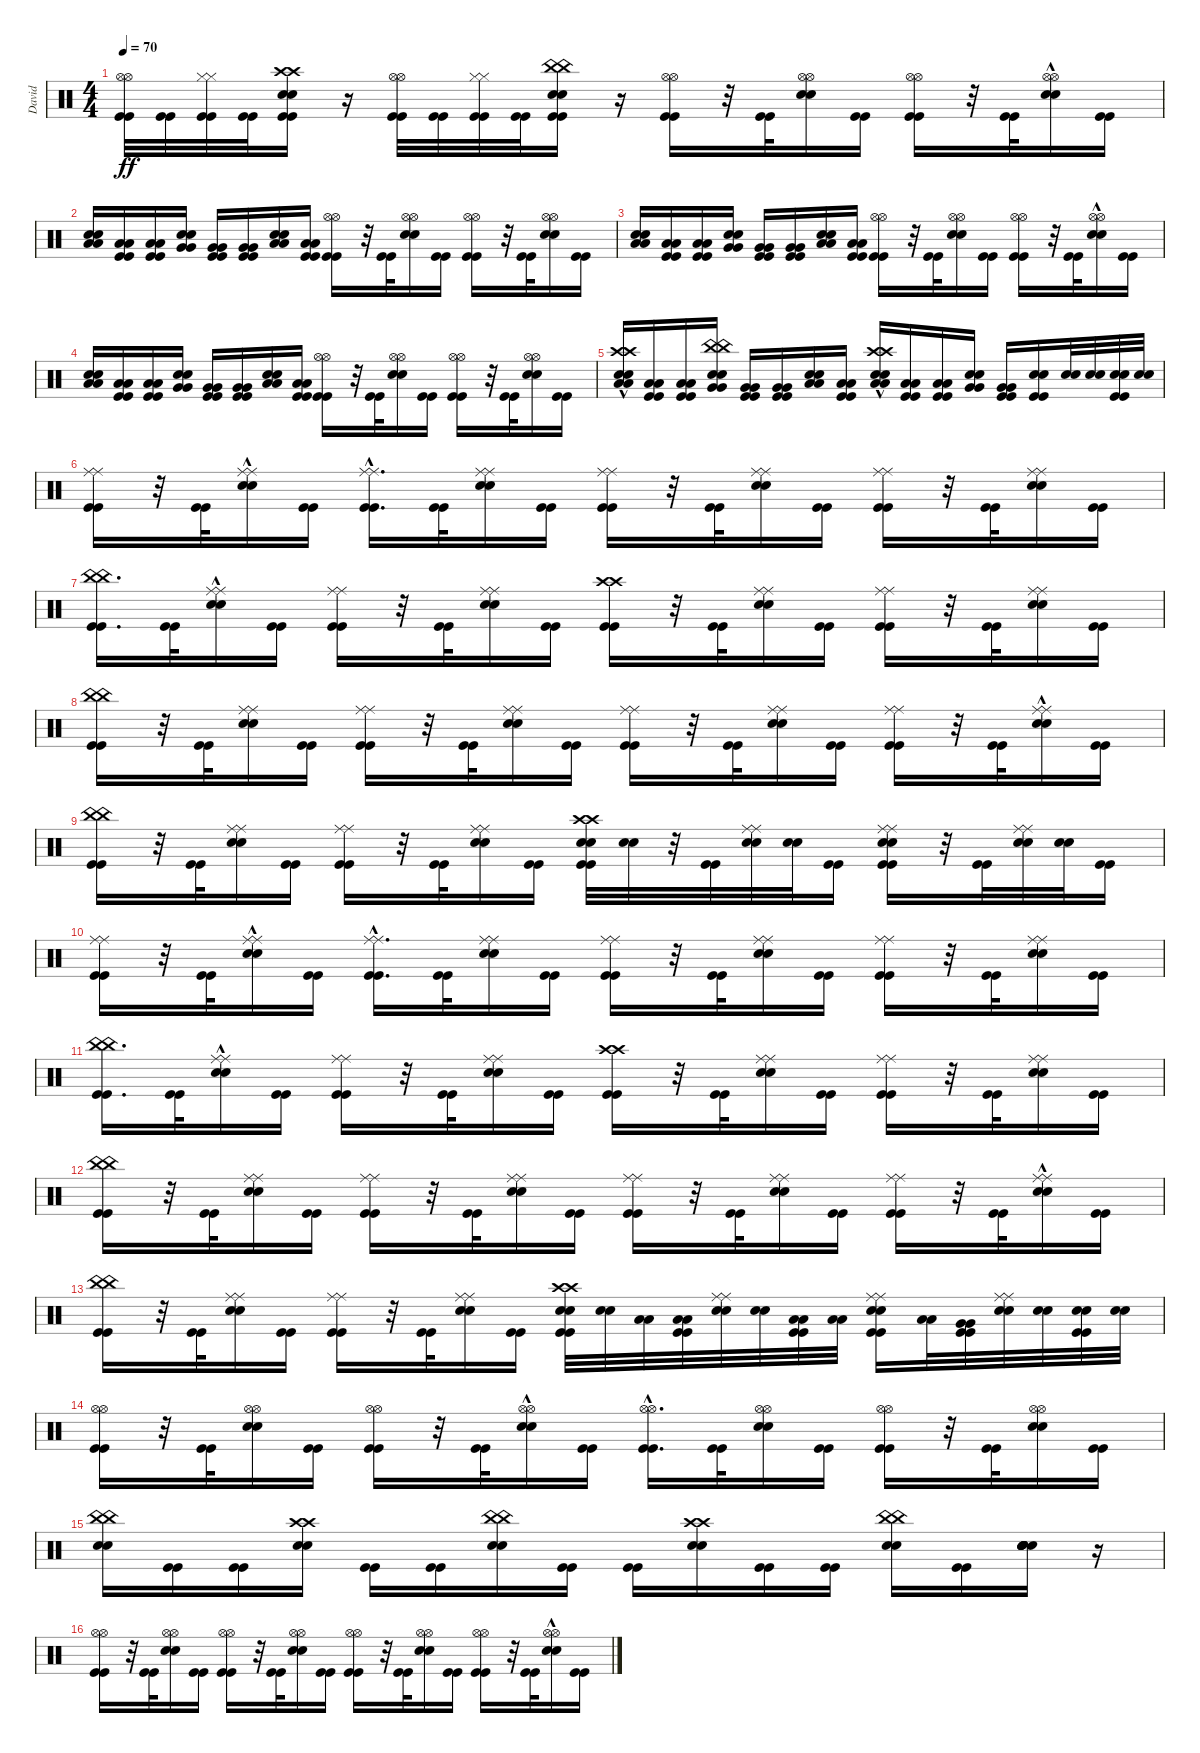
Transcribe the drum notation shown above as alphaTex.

\track ("David" "David") {instrument percussion}
\staff {score}
\articulation defaults
\ts (4 4)
\tempo 70
\clef neutral
\ks c
("Kick (hit)" "Kick (hit)" "Hi-Hat (open)" "Hi-Hat (open)").32{dy ff} ("Kick (hit)" "Kick (hit)").32 ("Hi-Hat (closed)" "Hi-Hat (closed)" "Kick (hit)" "Kick (hit)").32 ("Kick (hit)" "Kick (hit)").32 ("Snare (hit) 2" "Snare (hit) 2" "Crash high (hit)" "Crash high (hit)" "Kick (hit)" "Kick (hit)").16 r.16 ("Kick (hit)" "Kick (hit)" "Hi-Hat (open)" "Hi-Hat (open)").32 ("Kick (hit)" "Kick (hit)").32 ("Kick (hit)" "Kick (hit)" "Hi-Hat (closed)" "Hi-Hat (closed)").32 ("Kick (hit)" "Kick (hit)").32 ("Snare (hit) 2" "Snare (hit) 2" "China (hit)" "China (hit)" "Kick (hit)" "Kick (hit)").16 r.16 ("Kick (hit)" "Kick (hit)" "Hi-Hat (open)" "Hi-Hat (open)").16 r.32 ("Kick (hit)" "Kick (hit)").32 ("Snare (hit) 2" "Snare (hit) 2" "Hi-Hat (open)" "Hi-Hat (open)").16 ("Kick (hit)" "Kick (hit)").16 ("Kick (hit)" "Kick (hit)" "Hi-Hat (open)" "Hi-Hat (open)").16 r.32 ("Kick (hit)" "Kick (hit)").32 ("Snare (hit) 2" "Snare (hit) 2" "Hi-Hat (open)"{hac} "Hi-Hat (open)"{hac}).16 ("Kick (hit)" "Kick (hit)").16 |
("Low Tom (hit)" "Low Tom (hit)" "Snare (hit) 2" "Snare (hit) 2").16 ("Low Tom (hit)" "Low Tom (hit)" "Kick (hit)" "Kick (hit)").16 ("Low Tom (hit)" "Low Tom (hit)" "Kick (hit)" "Kick (hit)").16 ("Very Low Tom (hit)" "Very Low Tom (hit)" "Snare (hit) 2" "Snare (hit) 2").16 ("Very Low Tom (hit)" "Very Low Tom (hit)" "Kick (hit)" "Kick (hit)").16 ("Very Low Tom (hit)" "Very Low Tom (hit)" "Kick (hit)" "Kick (hit)").16 ("Low Floor Tom (hit)" "Low Floor Tom (hit)" "Snare (hit) 2" "Snare (hit) 2").16 ("Low Floor Tom (hit)" "Low Floor Tom (hit)" "Kick (hit)" "Kick (hit)").16 ("Kick (hit)" "Kick (hit)" "Hi-Hat (open)" "Hi-Hat (open)").16 r.32 ("Kick (hit)" "Kick (hit)").32 ("Snare (hit) 2" "Snare (hit) 2" "Hi-Hat (open)" "Hi-Hat (open)").16 ("Kick (hit)" "Kick (hit)").16 ("Kick (hit)" "Kick (hit)" "Hi-Hat (open)" "Hi-Hat (open)").16 r.32 ("Kick (hit)" "Kick (hit)").32 ("Snare (hit) 2" "Snare (hit) 2" "Hi-Hat (open)" "Hi-Hat (open)").16 ("Kick (hit)" "Kick (hit)").16 |
("Low Tom (hit)" "Low Tom (hit)" "Snare (hit) 2" "Snare (hit) 2").16 ("Low Tom (hit)" "Low Tom (hit)" "Kick (hit)" "Kick (hit)").16 ("Low Tom (hit)" "Low Tom (hit)" "Kick (hit)" "Kick (hit)").16 ("Very Low Tom (hit)" "Very Low Tom (hit)" "Snare (hit) 2" "Snare (hit) 2").16 ("Very Low Tom (hit)" "Very Low Tom (hit)" "Kick (hit)" "Kick (hit)").16 ("Very Low Tom (hit)" "Very Low Tom (hit)" "Kick (hit)" "Kick (hit)").16 ("Low Floor Tom (hit)" "Low Floor Tom (hit)" "Snare (hit) 2" "Snare (hit) 2").16 ("Low Floor Tom (hit)" "Low Floor Tom (hit)" "Kick (hit)" "Kick (hit)").16 ("Hi-Hat (open)" "Hi-Hat (open)" "Kick (hit)" "Kick (hit)").16 r.32 ("Kick (hit)" "Kick (hit)").32 ("Hi-Hat (open)" "Hi-Hat (open)" "Snare (hit) 2" "Snare (hit) 2").16 ("Kick (hit)" "Kick (hit)").16 ("Hi-Hat (open)" "Hi-Hat (open)" "Kick (hit)" "Kick (hit)").16 r.32 ("Kick (hit)" "Kick (hit)").32 ("Hi-Hat (open)"{hac} "Hi-Hat (open)"{hac} "Snare (hit) 2" "Snare (hit) 2").16 ("Kick (hit)" "Kick (hit)").16 |
("Low Tom (hit)" "Low Tom (hit)" "Snare (hit) 2" "Snare (hit) 2").16 ("Low Tom (hit)" "Low Tom (hit)" "Kick (hit)" "Kick (hit)").16 ("Low Tom (hit)" "Low Tom (hit)" "Kick (hit)" "Kick (hit)").16 ("Very Low Tom (hit)" "Very Low Tom (hit)" "Snare (hit) 2" "Snare (hit) 2").16 ("Very Low Tom (hit)" "Very Low Tom (hit)" "Kick (hit)" "Kick (hit)").16 ("Very Low Tom (hit)" "Very Low Tom (hit)" "Kick (hit)" "Kick (hit)").16 ("Low Floor Tom (hit)" "Low Floor Tom (hit)" "Snare (hit) 2" "Snare (hit) 2").16 ("Low Floor Tom (hit)" "Low Floor Tom (hit)" "Kick (hit)" "Kick (hit)").16 ("Hi-Hat (open)" "Hi-Hat (open)" "Kick (hit)" "Kick (hit)").16 r.32 ("Kick (hit)" "Kick (hit)").32 ("Hi-Hat (open)" "Hi-Hat (open)" "Snare (hit) 2" "Snare (hit) 2").16 ("Kick (hit)" "Kick (hit)").16 ("Hi-Hat (open)" "Hi-Hat (open)" "Kick (hit)" "Kick (hit)").16 r.32 ("Kick (hit)" "Kick (hit)").32 ("Hi-Hat (open)" "Hi-Hat (open)" "Snare (hit) 2" "Snare (hit) 2").16 ("Kick (hit)" "Kick (hit)").16 |
("Crash high (hit)"{hac} "Crash high (hit)"{hac} "Low Tom (hit)" "Low Tom (hit)" "Snare (hit) 2" "Snare (hit) 2").16 ("Low Tom (hit)" "Low Tom (hit)" "Kick (hit)" "Kick (hit)").16 ("Low Tom (hit)" "Low Tom (hit)" "Kick (hit)" "Kick (hit)").16 ("China (hit)" "China (hit)" "Very Low Tom (hit)" "Very Low Tom (hit)" "Snare (hit) 2" "Snare (hit) 2").16 ("Very Low Tom (hit)" "Very Low Tom (hit)" "Kick (hit)" "Kick (hit)").16 ("Very Low Tom (hit)" "Very Low Tom (hit)" "Kick (hit)" "Kick (hit)").16 ("Low Floor Tom (hit)" "Low Floor Tom (hit)" "Snare (hit) 2" "Snare (hit) 2").16 ("Low Floor Tom (hit)" "Low Floor Tom (hit)" "Kick (hit)" "Kick (hit)").16 ("Low Tom (hit)" "Low Tom (hit)" "Snare (hit) 2" "Snare (hit) 2" "Crash high (hit)"{hac} "Crash high (hit)"{hac}).16 ("Low Tom (hit)" "Low Tom (hit)" "Kick (hit)" "Kick (hit)").16 ("Low Tom (hit)" "Low Tom (hit)" "Kick (hit)" "Kick (hit)").16 ("Very Low Tom (hit)" "Very Low Tom (hit)" "Snare (hit) 2" "Snare (hit) 2").16 ("Very Low Tom (hit)" "Very Low Tom (hit)" "Kick (hit)" "Kick (hit)").16 ("Kick (hit)" "Kick (hit)" "Snare (hit) 2" "Snare (hit) 2").16 ("Snare (hit) 2" "Snare (hit) 2").32 ("Snare (hit) 2" "Snare (hit) 2").32 ("Kick (hit)" "Kick (hit)" "Snare (hit) 2" "Snare (hit) 2").32 ("Snare (hit) 2" "Snare (hit) 2").32 |
("Ride (middle)" "Ride (middle)" "Kick (hit)" "Kick (hit)").16 r.32 ("Kick (hit)" "Kick (hit)").32 ("Snare (hit) 2"{hac} "Snare (hit) 2"{hac} "Ride (middle)" "Ride (middle)").16 ("Kick (hit)" "Kick (hit)").16 ("Ride (middle)"{hac} "Ride (middle)"{hac} "Kick (hit)" "Kick (hit)").16{d} ("Kick (hit)" "Kick (hit)").32 ("Snare (hit) 2" "Snare (hit) 2" "Ride (middle)" "Ride (middle)").16 ("Kick (hit)" "Kick (hit)").16 ("Kick (hit)" "Kick (hit)" "Ride (middle)" "Ride (middle)").16 r.32 ("Kick (hit)" "Kick (hit)").32 ("Snare (hit) 2" "Snare (hit) 2" "Ride (middle)" "Ride (middle)").16 ("Kick (hit)" "Kick (hit)").16 ("Kick (hit)" "Kick (hit)" "Ride (middle)" "Ride (middle)").16 r.32 ("Kick (hit)" "Kick (hit)").32 ("Snare (hit) 2" "Snare (hit) 2" "Ride (middle)" "Ride (middle)").16 ("Kick (hit)" "Kick (hit)").16 |
("Kick (hit)" "Kick (hit)" "China (hit)" "China (hit)").16{d} ("Kick (hit)" "Kick (hit)").32 ("Snare (hit) 2"{hac} "Snare (hit) 2"{hac} "Ride (middle)" "Ride (middle)").16 ("Kick (hit)" "Kick (hit)").16 ("Kick (hit)" "Kick (hit)" "Ride (middle)" "Ride (middle)").16 r.32 ("Kick (hit)" "Kick (hit)").32 ("Snare (hit) 2" "Snare (hit) 2" "Ride (middle)" "Ride (middle)").16 ("Kick (hit)" "Kick (hit)").16 ("Kick (hit)" "Kick (hit)" "Crash high (hit)" "Crash high (hit)").16 r.32 ("Kick (hit)" "Kick (hit)").32 ("Snare (hit) 2" "Snare (hit) 2" "Ride (middle)" "Ride (middle)").16 ("Kick (hit)" "Kick (hit)").16 ("Kick (hit)" "Kick (hit)" "Ride (middle)" "Ride (middle)").16 r.32 ("Kick (hit)" "Kick (hit)").32 ("Snare (hit) 2" "Snare (hit) 2" "Ride (middle)" "Ride (middle)").16 ("Kick (hit)" "Kick (hit)").16 |
("Kick (hit)" "Kick (hit)" "China (hit)" "China (hit)").16 r.32 ("Kick (hit)" "Kick (hit)").32 ("Snare (hit) 2" "Snare (hit) 2" "Ride (middle)" "Ride (middle)").16 ("Kick (hit)" "Kick (hit)").16 ("Kick (hit)" "Kick (hit)" "Ride (middle)" "Ride (middle)").16 r.32 ("Kick (hit)" "Kick (hit)").32 ("Ride (middle)" "Ride (middle)" "Snare (hit) 2" "Snare (hit) 2").16 ("Kick (hit)" "Kick (hit)").16 ("Ride (middle)" "Ride (middle)" "Kick (hit)" "Kick (hit)").16 r.32 ("Kick (hit)" "Kick (hit)").32 ("Ride (middle)" "Ride (middle)" "Snare (hit) 2" "Snare (hit) 2").16 ("Kick (hit)" "Kick (hit)").16 ("Kick (hit)" "Kick (hit)" "Ride (middle)" "Ride (middle)").16 r.32 ("Kick (hit)" "Kick (hit)").32 ("Snare (hit) 2"{hac} "Snare (hit) 2"{hac} "Ride (middle)" "Ride (middle)").16 ("Kick (hit)" "Kick (hit)").16 |
("Kick (hit)" "Kick (hit)" "China (hit)" "China (hit)").16 r.32 ("Kick (hit)" "Kick (hit)").32 ("Snare (hit) 2" "Snare (hit) 2" "Ride (middle)" "Ride (middle)").16 ("Kick (hit)" "Kick (hit)").16 ("Ride (middle)" "Ride (middle)" "Kick (hit)" "Kick (hit)").16 r.32 ("Kick (hit)" "Kick (hit)").32 ("Ride (middle)" "Ride (middle)" "Snare (hit) 2" "Snare (hit) 2").16 ("Kick (hit)" "Kick (hit)").16 ("Crash high (hit)" "Crash high (hit)" "Kick (hit)" "Kick (hit)" "Snare (hit) 2" "Snare (hit) 2").32 ("Snare (hit) 2" "Snare (hit) 2").32 r.32 ("Kick (hit)" "Kick (hit)").32 ("Snare (hit) 2" "Snare (hit) 2" "Ride (middle)" "Ride (middle)").32 ("Snare (hit) 2" "Snare (hit) 2").32 ("Kick (hit)" "Kick (hit)").16 ("Snare (hit) 2" "Snare (hit) 2" "Ride (middle)" "Ride (middle)" "Kick (hit)" "Kick (hit)").16 r.32 ("Kick (hit)" "Kick (hit)").32 ("Snare (hit) 2" "Snare (hit) 2" "Ride (middle)" "Ride (middle)").32 ("Snare (hit) 2" "Snare (hit) 2").32 ("Kick (hit)" "Kick (hit)").16 |
("Kick (hit)" "Kick (hit)" "Ride (middle)" "Ride (middle)").16 r.32 ("Kick (hit)" "Kick (hit)").32 ("Ride (middle)" "Ride (middle)" "Snare (hit) 2"{hac} "Snare (hit) 2"{hac}).16 ("Kick (hit)" "Kick (hit)").16 ("Kick (hit)" "Kick (hit)" "Ride (middle)"{hac} "Ride (middle)"{hac}).16{d} ("Kick (hit)" "Kick (hit)").32 ("Ride (middle)" "Ride (middle)" "Snare (hit) 2" "Snare (hit) 2").16 ("Kick (hit)" "Kick (hit)").16 ("Ride (middle)" "Ride (middle)" "Kick (hit)" "Kick (hit)").16 r.32 ("Kick (hit)" "Kick (hit)").32 ("Ride (middle)" "Ride (middle)" "Snare (hit) 2" "Snare (hit) 2").16 ("Kick (hit)" "Kick (hit)").16 ("Ride (middle)" "Ride (middle)" "Kick (hit)" "Kick (hit)").16 r.32 ("Kick (hit)" "Kick (hit)").32 ("Ride (middle)" "Ride (middle)" "Snare (hit) 2" "Snare (hit) 2").16 ("Kick (hit)" "Kick (hit)").16 |
("China (hit)" "China (hit)" "Kick (hit)" "Kick (hit)").16{d} ("Kick (hit)" "Kick (hit)").32 ("Ride (middle)" "Ride (middle)" "Snare (hit) 2"{hac} "Snare (hit) 2"{hac}).16 ("Kick (hit)" "Kick (hit)").16 ("Ride (middle)" "Ride (middle)" "Kick (hit)" "Kick (hit)").16 r.32 ("Kick (hit)" "Kick (hit)").32 ("Ride (middle)" "Ride (middle)" "Snare (hit) 2" "Snare (hit) 2").16 ("Kick (hit)" "Kick (hit)").16 ("Crash high (hit)" "Crash high (hit)" "Kick (hit)" "Kick (hit)").16 r.32 ("Kick (hit)" "Kick (hit)").32 ("Ride (middle)" "Ride (middle)" "Snare (hit) 2" "Snare (hit) 2").16 ("Kick (hit)" "Kick (hit)").16 ("Ride (middle)" "Ride (middle)" "Kick (hit)" "Kick (hit)").16 r.32 ("Kick (hit)" "Kick (hit)").32 ("Ride (middle)" "Ride (middle)" "Snare (hit) 2" "Snare (hit) 2").16 ("Kick (hit)" "Kick (hit)").16 |
("China (hit)" "China (hit)" "Kick (hit)" "Kick (hit)").16 r.32 ("Kick (hit)" "Kick (hit)").32 ("Ride (middle)" "Ride (middle)" "Snare (hit) 2" "Snare (hit) 2").16 ("Kick (hit)" "Kick (hit)").16 ("Ride (middle)" "Ride (middle)" "Kick (hit)" "Kick (hit)").16 r.32 ("Kick (hit)" "Kick (hit)").32 ("Snare (hit) 2" "Snare (hit) 2" "Ride (middle)" "Ride (middle)").16 ("Kick (hit)" "Kick (hit)").16 ("Kick (hit)" "Kick (hit)" "Ride (middle)" "Ride (middle)").16 r.32 ("Kick (hit)" "Kick (hit)").32 ("Snare (hit) 2" "Snare (hit) 2" "Ride (middle)" "Ride (middle)").16 ("Kick (hit)" "Kick (hit)").16 ("Ride (middle)" "Ride (middle)" "Kick (hit)" "Kick (hit)").16 r.32 ("Kick (hit)" "Kick (hit)").32 ("Ride (middle)" "Ride (middle)" "Snare (hit) 2"{hac} "Snare (hit) 2"{hac}).16 ("Kick (hit)" "Kick (hit)").16 |
("China (hit)" "China (hit)" "Kick (hit)" "Kick (hit)").16 r.32 ("Kick (hit)" "Kick (hit)").32 ("Ride (middle)" "Ride (middle)" "Snare (hit) 2" "Snare (hit) 2").16 ("Kick (hit)" "Kick (hit)").16 ("Kick (hit)" "Kick (hit)" "Ride (middle)" "Ride (middle)").16 r.32 ("Kick (hit)" "Kick (hit)").32 ("Snare (hit) 2" "Snare (hit) 2" "Ride (middle)" "Ride (middle)").16 ("Kick (hit)" "Kick (hit)").16 ("Crash high (hit)" "Crash high (hit)" "Kick (hit)" "Kick (hit)" "Snare (hit) 2" "Snare (hit) 2").32 ("Snare (hit) 2" "Snare (hit) 2").32 ("Low Floor Tom (hit)" "Low Floor Tom (hit)").32 ("Low Floor Tom (hit)" "Low Floor Tom (hit)" "Kick (hit)" "Kick (hit)").32 ("Ride (middle)" "Ride (middle)" "Snare (hit) 2" "Snare (hit) 2").32 ("Snare (hit) 2" "Snare (hit) 2").32 ("Low Floor Tom (hit)" "Low Floor Tom (hit)" "Kick (hit)" "Kick (hit)").32 ("Low Floor Tom (hit)" "Low Floor Tom (hit)").32 ("Ride (middle)" "Ride (middle)" "Snare (hit) 2" "Snare (hit) 2" "Kick (hit)" "Kick (hit)").16 ("Low Floor Tom (hit)" "Low Floor Tom (hit)").32 ("Very Low Tom (hit)" "Very Low Tom (hit)" "Kick (hit)" "Kick (hit)").32 ("Ride (middle)" "Ride (middle)" "Snare (hit) 2" "Snare (hit) 2").32 ("Snare (hit) 2" "Snare (hit) 2").32 ("Snare (hit) 2" "Snare (hit) 2" "Kick (hit)" "Kick (hit)").32 ("Snare (hit) 2" "Snare (hit) 2").32 |
("Kick (hit)" "Kick (hit)" "Hi-Hat (open)" "Hi-Hat (open)").16 r.32 ("Kick (hit)" "Kick (hit)").32 ("Hi-Hat (open)" "Hi-Hat (open)" "Snare (hit) 2" "Snare (hit) 2").16 ("Kick (hit)" "Kick (hit)").16 ("Hi-Hat (open)" "Hi-Hat (open)" "Kick (hit)" "Kick (hit)").16 r.32 ("Kick (hit)" "Kick (hit)").32 ("Snare (hit) 2"{hac} "Snare (hit) 2"{hac} "Hi-Hat (open)" "Hi-Hat (open)").16 ("Kick (hit)" "Kick (hit)").16 ("Hi-Hat (open)"{hac} "Hi-Hat (open)"{hac} "Kick (hit)" "Kick (hit)").16{d} ("Kick (hit)" "Kick (hit)").32 ("Snare (hit) 2" "Snare (hit) 2" "Hi-Hat (open)" "Hi-Hat (open)").16 ("Kick (hit)" "Kick (hit)").16 ("Kick (hit)" "Kick (hit)" "Hi-Hat (open)" "Hi-Hat (open)").16 r.32 ("Kick (hit)" "Kick (hit)").32 ("Snare (hit) 2" "Snare (hit) 2" "Hi-Hat (open)" "Hi-Hat (open)").16 ("Kick (hit)" "Kick (hit)").16 |
("Snare (hit) 2" "Snare (hit) 2" "China (hit)" "China (hit)").16 ("Kick (hit)" "Kick (hit)").16 ("Kick (hit)" "Kick (hit)").16 ("Crash high (hit)" "Crash high (hit)" "Snare (hit) 2" "Snare (hit) 2").16 ("Kick (hit)" "Kick (hit)").16 ("Kick (hit)" "Kick (hit)").16 ("China (hit)" "China (hit)" "Snare (hit) 2" "Snare (hit) 2").16 ("Kick (hit)" "Kick (hit)").16 ("Kick (hit)" "Kick (hit)").16 ("Snare (hit) 2" "Snare (hit) 2" "Crash high (hit)" "Crash high (hit)").16 ("Kick (hit)" "Kick (hit)").16 ("Kick (hit)" "Kick (hit)").16 ("Snare (hit) 2" "Snare (hit) 2" "China (hit)" "China (hit)").16 ("Kick (hit)" "Kick (hit)").16 ("Snare (hit) 2" "Snare (hit) 2" "Snare (hit) 2" "Snare (hit) 2" "Snare (hit) 2" "Snare (hit) 2").16 r.16 |
("Hi-Hat (open)" "Hi-Hat (open)" "Kick (hit)" "Kick (hit)").16 r.32 ("Kick (hit)" "Kick (hit)").32 ("Snare (hit) 2" "Snare (hit) 2" "Hi-Hat (open)" "Hi-Hat (open)").16 ("Kick (hit)" "Kick (hit)").16 ("Hi-Hat (open)" "Hi-Hat (open)" "Kick (hit)" "Kick (hit)").16 r.32 ("Kick (hit)" "Kick (hit)").32 ("Snare (hit) 2" "Snare (hit) 2" "Hi-Hat (open)" "Hi-Hat (open)").16 ("Kick (hit)" "Kick (hit)").16 ("Hi-Hat (open)" "Hi-Hat (open)" "Kick (hit)" "Kick (hit)").16 r.32 ("Kick (hit)" "Kick (hit)").32 ("Snare (hit) 2" "Snare (hit) 2" "Hi-Hat (open)" "Hi-Hat (open)").16 ("Kick (hit)" "Kick (hit)").16 ("Kick (hit)" "Kick (hit)" "Hi-Hat (open)" "Hi-Hat (open)").16 r.32 ("Kick (hit)" "Kick (hit)").32 ("Hi-Hat (open)"{hac} "Hi-Hat (open)"{hac} "Snare (hit) 2" "Snare (hit) 2").16 ("Kick (hit)" "Kick (hit)").16
